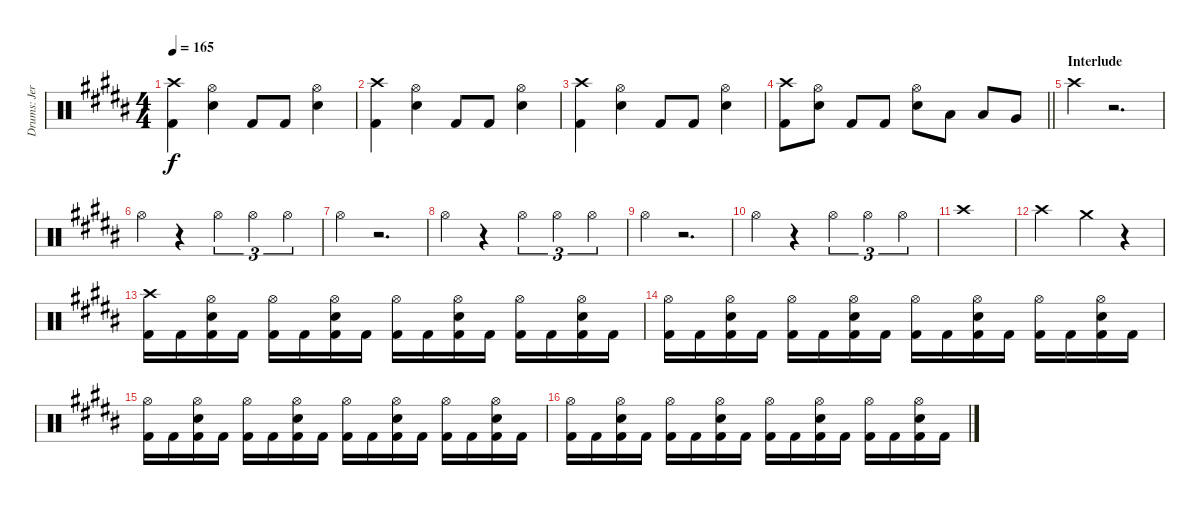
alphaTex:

\track ("Drums: Jere Luokkamäki" "Drums: Jer") {instrument percussion}
\staff {score}
\articulation defaults
\ts (4 4)
\tempo 165
\clef neutral
\ks g#minor
("Crash high (hit)" "Kick (hit) 2").4{dy f} ("Hi-Hat (open)" "Electric Snare (hit)").4 "Kick (hit) 2".8 "Kick (hit) 2".8 ("Hi-Hat (open)" "Electric Snare (hit)").4 |
("Crash high (hit)" "Kick (hit) 2").4 ("Hi-Hat (open)" "Electric Snare (hit)").4 "Kick (hit) 2".8 "Kick (hit) 2".8 ("Hi-Hat (open)" "Electric Snare (hit)").4 |
("Crash high (hit)" "Kick (hit) 2").4 ("Hi-Hat (open)" "Electric Snare (hit)").4 "Kick (hit) 2".8 "Kick (hit) 2".8 ("Hi-Hat (open)" "Electric Snare (hit)").4 |
\barLineRight lightlight
("Crash high (hit)" "Kick (hit) 2").8 ("Hi-Hat (open)" "Electric Snare (hit)").8 "Kick (hit) 2".8 "Kick (hit) 2".8 ("Hi-Hat (open)" "Electric Snare (hit)").8 "Low Tom (hit)".8 "Low Tom (hit)".8 "Very Low Tom (hit)".8 |
\section ("" "Interlude")
"Crash high (hit)".4 r.2{d} |
"Hi-Hat (open)".4 r.4 "Hi-Hat (open)".4{tu (3 2)} "Hi-Hat (open)".4{tu (3 2)} "Hi-Hat (open)".4{tu (3 2)} |
"Hi-Hat (open)".4 r.2{d} |
"Hi-Hat (open)".4 r.4 "Hi-Hat (open)".4{tu (3 2)} "Hi-Hat (open)".4{tu (3 2)} "Hi-Hat (open)".4{tu (3 2)} |
"Hi-Hat (open)".4 r.2{d} |
"Hi-Hat (open)".4 r.4 "Hi-Hat (open)".4{tu (3 2)} "Hi-Hat (open)".4{tu (3 2)} "Hi-Hat (open)".4{tu (3 2)} |
"Crash high (hit)".1 |
"Crash high (hit)".2 "Crash medium (hit)".4 r.4 |
("Crash high (hit)" "Kick (hit) 2").16 "Kick (hit) 2".16 ("Hi-Hat (open)" "Electric Snare (hit)" "Kick (hit) 2").16 "Kick (hit) 2".16 ("Hi-Hat (open)" "Kick (hit) 2").16 "Kick (hit) 2".16 ("Hi-Hat (open)" "Electric Snare (hit)" "Kick (hit) 2").16 "Kick (hit) 2".16 ("Hi-Hat (open)" "Kick (hit) 2").16 "Kick (hit) 2".16 ("Hi-Hat (open)" "Electric Snare (hit)" "Kick (hit) 2").16 "Kick (hit) 2".16 ("Hi-Hat (open)" "Kick (hit) 2").16 "Kick (hit) 2".16 ("Hi-Hat (open)" "Electric Snare (hit)" "Kick (hit) 2").16 "Kick (hit) 2".16 |
("Hi-Hat (open)" "Kick (hit) 2").16 "Kick (hit) 2".16 ("Hi-Hat (open)" "Electric Snare (hit)" "Kick (hit) 2").16 "Kick (hit) 2".16 ("Hi-Hat (open)" "Kick (hit) 2").16 "Kick (hit) 2".16 ("Hi-Hat (open)" "Electric Snare (hit)" "Kick (hit) 2").16 "Kick (hit) 2".16 ("Hi-Hat (open)" "Kick (hit) 2").16 "Kick (hit) 2".16 ("Hi-Hat (open)" "Electric Snare (hit)" "Kick (hit) 2").16 "Kick (hit) 2".16 ("Hi-Hat (open)" "Kick (hit) 2").16 "Kick (hit) 2".16 ("Hi-Hat (open)" "Electric Snare (hit)" "Kick (hit) 2").16 "Kick (hit) 2".16 |
("Hi-Hat (open)" "Kick (hit) 2").16 "Kick (hit) 2".16 ("Hi-Hat (open)" "Electric Snare (hit)" "Kick (hit) 2").16 "Kick (hit) 2".16 ("Hi-Hat (open)" "Kick (hit) 2").16 "Kick (hit) 2".16 ("Hi-Hat (open)" "Electric Snare (hit)" "Kick (hit) 2").16 "Kick (hit) 2".16 ("Hi-Hat (open)" "Kick (hit) 2").16 "Kick (hit) 2".16 ("Hi-Hat (open)" "Electric Snare (hit)" "Kick (hit) 2").16 "Kick (hit) 2".16 ("Hi-Hat (open)" "Kick (hit) 2").16 "Kick (hit) 2".16 ("Hi-Hat (open)" "Electric Snare (hit)" "Kick (hit) 2").16 "Kick (hit) 2".16 |
("Hi-Hat (open)" "Kick (hit) 2").16 "Kick (hit) 2".16 ("Hi-Hat (open)" "Electric Snare (hit)" "Kick (hit) 2").16 "Kick (hit) 2".16 ("Hi-Hat (open)" "Kick (hit) 2").16 "Kick (hit) 2".16 ("Hi-Hat (open)" "Electric Snare (hit)" "Kick (hit) 2").16 "Kick (hit) 2".16 ("Hi-Hat (open)" "Kick (hit) 2").16 "Kick (hit) 2".16 ("Hi-Hat (open)" "Electric Snare (hit)" "Kick (hit) 2").16 "Kick (hit) 2".16 ("Hi-Hat (open)" "Kick (hit) 2").16 "Kick (hit) 2".16 ("Hi-Hat (open)" "Electric Snare (hit)" "Kick (hit) 2").16 "Kick (hit) 2".16
